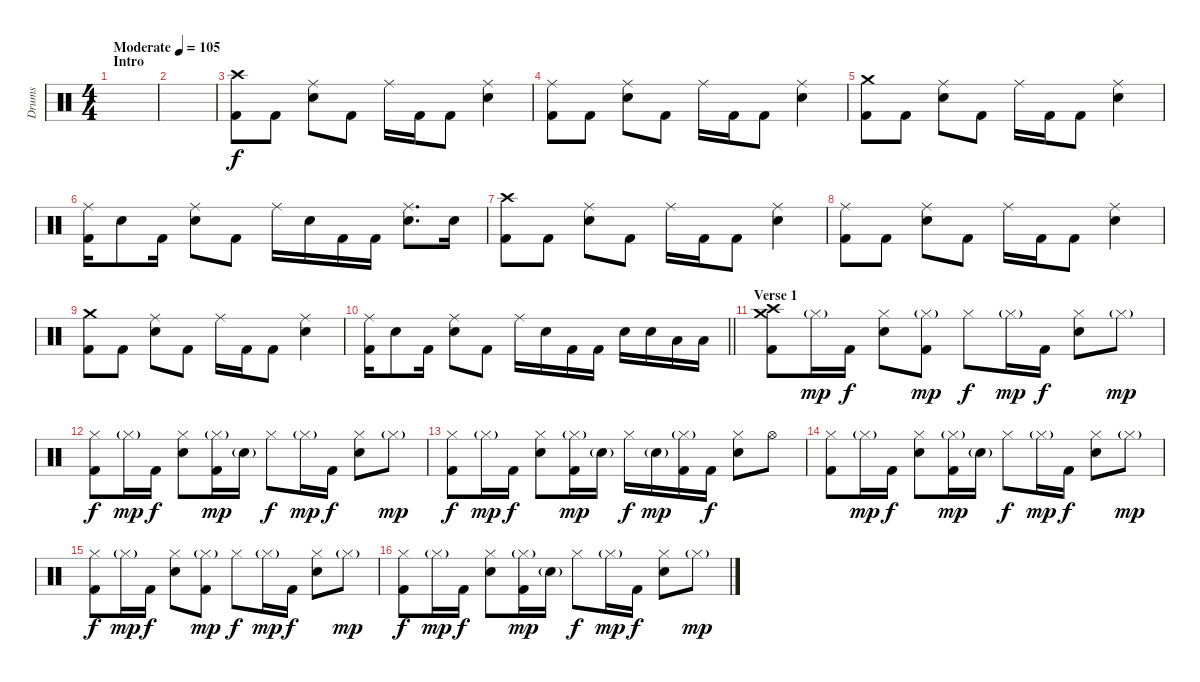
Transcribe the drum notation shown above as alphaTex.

\track ("Drums" "Drums") {instrument percussion}
\staff {score}
\articulation defaults
\ts (4 4)
\section ("" "Intro")
\tempo (105 "Moderate")
\clef neutral
\ks c
|
|
("Crash high (hit)" "Kick (hit) 2").8 "Kick (hit) 2".8 ("Ride (middle)" "Electric Snare (hit)").8 "Kick (hit) 2".8 "Ride (middle)".16 "Kick (hit) 2".16 "Kick (hit) 2".8 ("Ride (middle)" "Electric Snare (hit)").4 |
("Ride (middle)" "Kick (hit) 2").8 "Kick (hit) 2".8 ("Ride (middle)" "Electric Snare (hit)").8 "Kick (hit) 2".8 "Ride (middle)".16 "Kick (hit) 2".16 "Kick (hit) 2".8 ("Ride (middle)" "Electric Snare (hit)").4 |
("Crash medium (hit)" "Kick (hit) 2").8 "Kick (hit) 2".8 ("Ride (middle)" "Electric Snare (hit)").8 "Kick (hit) 2".8 "Ride (middle)".16 "Kick (hit) 2".16 "Kick (hit) 2".8 ("Ride (middle)" "Electric Snare (hit)").4 |
("Ride (middle)" "Kick (hit) 2").16 "Electric Snare (hit)".8 "Kick (hit) 2".16 ("Ride (middle)" "Electric Snare (hit)").8 "Kick (hit) 2".8 "Ride (middle)".16 "Electric Snare (hit)".16 "Kick (hit) 2".16 "Kick (hit) 2".16 ("Ride (middle)" "Electric Snare (hit)").8{d} "Electric Snare (hit)".16 |
("Crash high (hit)" "Kick (hit) 2").8 "Kick (hit) 2".8 ("Ride (middle)" "Electric Snare (hit)").8 "Kick (hit) 2".8 "Ride (middle)".16 "Kick (hit) 2".16 "Kick (hit) 2".8 ("Ride (middle)" "Electric Snare (hit)").4 |
("Ride (middle)" "Kick (hit) 2").8 "Kick (hit) 2".8 ("Ride (middle)" "Electric Snare (hit)").8 "Kick (hit) 2".8 "Ride (middle)".16 "Kick (hit) 2".16 "Kick (hit) 2".8 ("Ride (middle)" "Electric Snare (hit)").4 |
("Crash medium (hit)" "Kick (hit) 2").8 "Kick (hit) 2".8 ("Ride (middle)" "Electric Snare (hit)").8 "Kick (hit) 2".8 "Ride (middle)".16 "Kick (hit) 2".16 "Kick (hit) 2".8 ("Ride (middle)" "Electric Snare (hit)").4 |
\barLineRight lightlight
("Ride (middle)" "Kick (hit) 2").16 "Electric Snare (hit)".8 "Kick (hit) 2".16 ("Ride (middle)" "Electric Snare (hit)").8 "Kick (hit) 2".8 "Ride (middle)".16 "Electric Snare (hit)".16 "Kick (hit) 2".16 "Kick (hit) 2".16 "Electric Snare (hit)".16 "Electric Snare (hit)".16 "Low Tom (hit)".16 "Low Tom (hit)".16 |
\section ("" "Verse 1")
("Crash medium (hit)" "Crash high (hit)" "Kick (hit) 2").8 "Hi-Hat (closed)"{g}.16{dy mp} "Kick (hit) 2".16{dy f} ("Hi-Hat (closed)" "Electric Snare (hit)").8 ("Hi-Hat (closed)"{g} "Kick (hit) 2").8{dy mp} "Hi-Hat (closed)".8{dy f} "Hi-Hat (closed)"{g}.16{dy mp} "Kick (hit) 2".16{dy f} ("Hi-Hat (closed)" "Electric Snare (hit)").8 "Hi-Hat (closed)"{g}.8{dy mp} |
("Hi-Hat (closed)" "Kick (hit) 2").8{dy f} "Hi-Hat (closed)"{g}.16{dy mp} "Kick (hit) 2".16{dy f} ("Hi-Hat (closed)" "Electric Snare (hit)").8 ("Hi-Hat (closed)"{g} "Kick (hit) 2").16{dy mp} "Electric Snare (hit)"{g}.16 "Hi-Hat (closed)".8{dy f} "Hi-Hat (closed)"{g}.16{dy mp} "Kick (hit) 2".16{dy f} ("Hi-Hat (closed)" "Electric Snare (hit)").8 "Hi-Hat (closed)"{g}.8{dy mp} |
("Hi-Hat (closed)" "Kick (hit) 2").8{dy f} "Hi-Hat (closed)"{g}.16{dy mp} "Kick (hit) 2".16{dy f} ("Hi-Hat (closed)" "Electric Snare (hit)").8 ("Hi-Hat (closed)"{g} "Kick (hit) 2").16{dy mp} "Electric Snare (hit)"{g}.16 "Hi-Hat (closed)".16{dy f} "Electric Snare (hit)"{g}.16{dy mp} ("Hi-Hat (closed)"{g} "Kick (hit) 2").16 "Kick (hit) 2".16{dy f} ("Hi-Hat (closed)" "Electric Snare (hit)").8 "Hi-Hat (open)".8 |
("Hi-Hat (closed)" "Kick (hit) 2").8 "Hi-Hat (closed)"{g}.16{dy mp} "Kick (hit) 2".16{dy f} ("Hi-Hat (closed)" "Electric Snare (hit)").8 ("Hi-Hat (closed)"{g} "Kick (hit) 2").16{dy mp} "Electric Snare (hit)"{g}.16 "Hi-Hat (closed)".8{dy f} "Hi-Hat (closed)"{g}.16{dy mp} "Kick (hit) 2".16{dy f} ("Hi-Hat (closed)" "Electric Snare (hit)").8 "Hi-Hat (closed)"{g}.8{dy mp} |
("Hi-Hat (closed)" "Kick (hit) 2").8{dy f} "Hi-Hat (closed)"{g}.16{dy mp} "Kick (hit) 2".16{dy f} ("Hi-Hat (closed)" "Electric Snare (hit)").8 ("Hi-Hat (closed)"{g} "Kick (hit) 2").8{dy mp} "Hi-Hat (closed)".8{dy f} "Hi-Hat (closed)"{g}.16{dy mp} "Kick (hit) 2".16{dy f} ("Hi-Hat (closed)" "Electric Snare (hit)").8 "Hi-Hat (closed)"{g}.8{dy mp} |
("Hi-Hat (closed)" "Kick (hit) 2").8{dy f} "Hi-Hat (closed)"{g}.16{dy mp} "Kick (hit) 2".16{dy f} ("Hi-Hat (closed)" "Electric Snare (hit)").8 ("Hi-Hat (closed)"{g} "Kick (hit) 2").16{dy mp} "Electric Snare (hit)"{g}.16 "Hi-Hat (closed)".8{dy f} "Hi-Hat (closed)"{g}.16{dy mp} "Kick (hit) 2".16{dy f} ("Hi-Hat (closed)" "Electric Snare (hit)").8 "Hi-Hat (closed)"{g}.8{dy mp}
